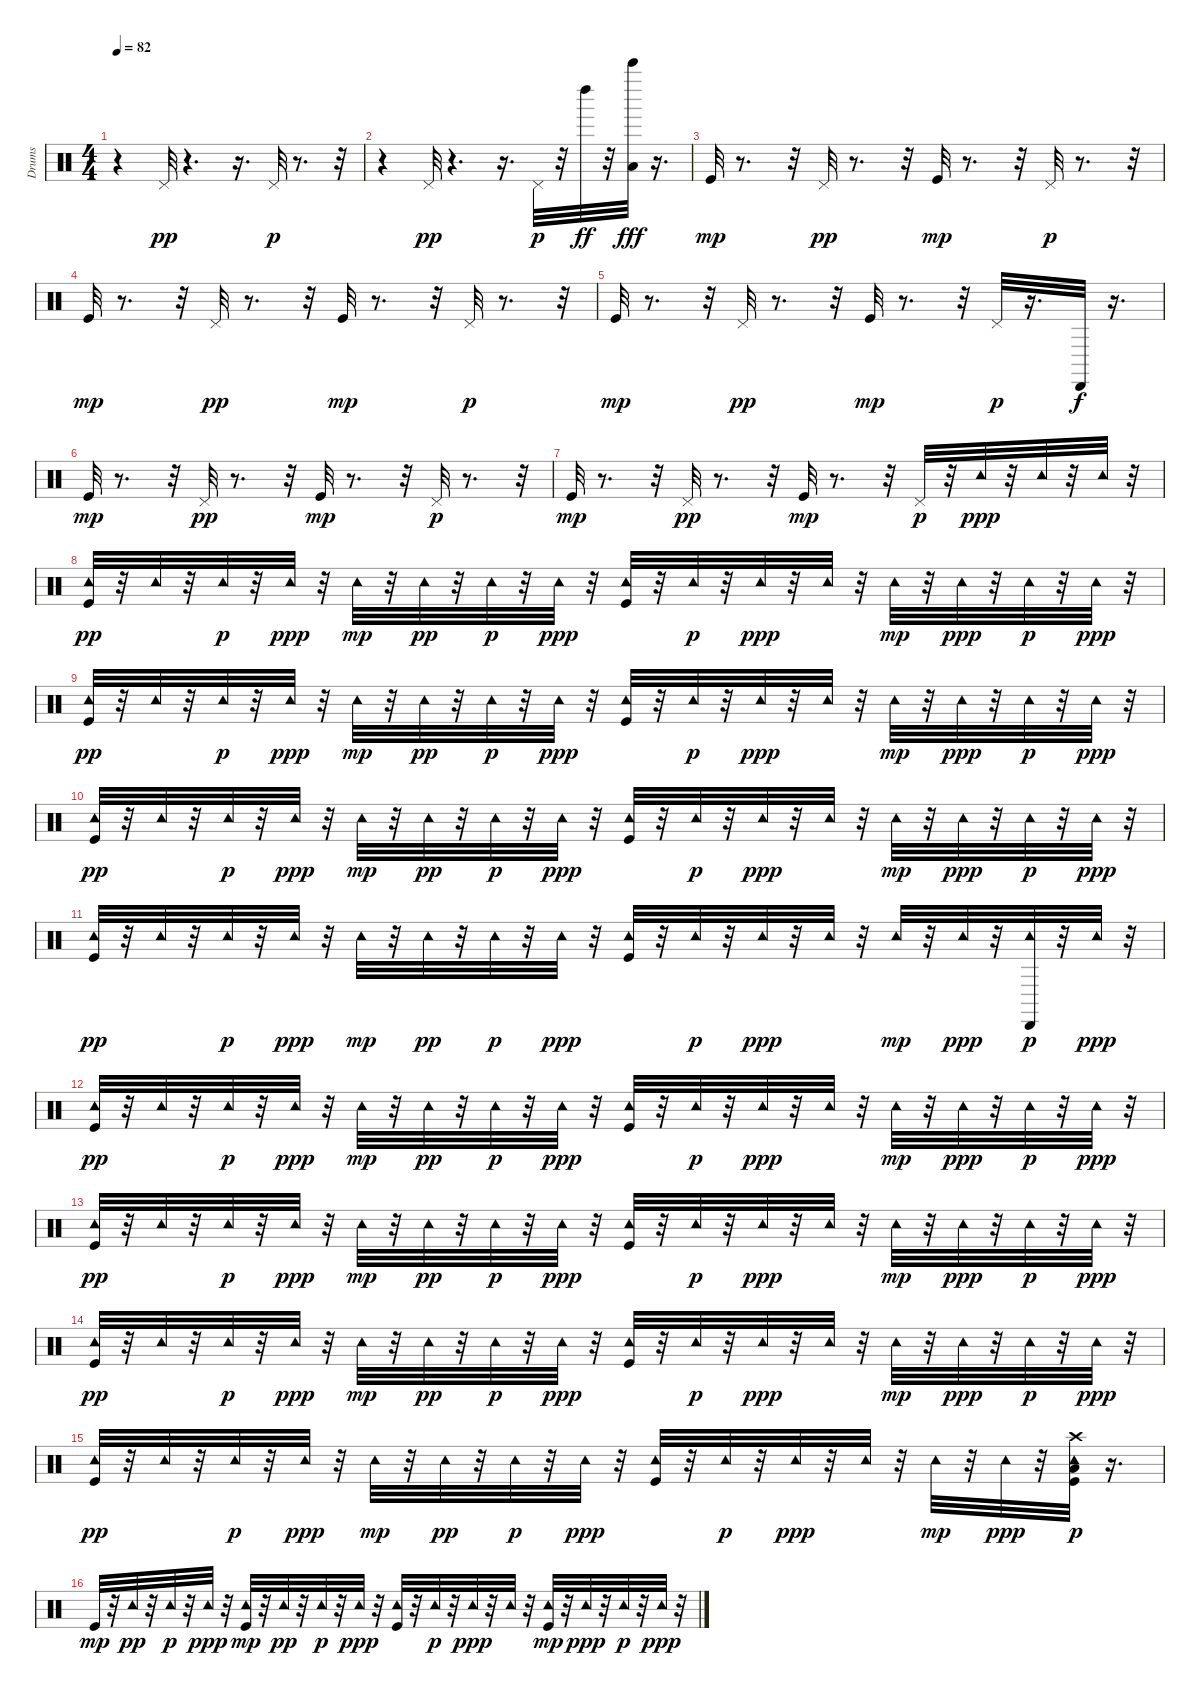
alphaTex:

\track ("Drums" "Drums") {instrument percussion}
\staff {score}
\articulation defaults
\ts (4 4)
\tempo 82
\clef neutral
\ks c
r.4{dy p} "Pedal Hi-Hat (hit)".32{dy pp} r.4{d} r.16{d} "Pedal Hi-Hat (hit)".32{dy p} r.8{d} r.32 |
r.4 "Pedal Hi-Hat (hit)".32{dy pp} r.4{d} r.16{d} "Pedal Hi-Hat (hit)".32{dy p} r.32 "Left Maraca (hit)".32{dy ff} r.32 ("Bell Tree (hit)" "Low Tom (hit)").32{dy fff} r.16{d} |
"Kick (hit)".32{dy mp} r.8{d} r.32 "Pedal Hi-Hat (hit)".32{dy pp} r.8{d} r.32 "Kick (hit)".32{dy mp} r.8{d} r.32 "Pedal Hi-Hat (hit)".32{dy p} r.8{d} r.32 |
"Kick (hit)".32{dy mp} r.8{d} r.32 "Pedal Hi-Hat (hit)".32{dy pp} r.8{d} r.32 "Kick (hit)".32{dy mp} r.8{d} r.32 "Pedal Hi-Hat (hit)".32{dy p} r.8{d} r.32 |
"Kick (hit)".32{dy mp} r.8{d} r.32 "Pedal Hi-Hat (hit)".32{dy pp} r.8{d} r.32 "Kick (hit)".32{dy mp} r.8{d} r.32 "Pedal Hi-Hat (hit)".32{dy p} r.16{d} "Cabasa (hit)".32{dy f} r.16{d} |
"Kick (hit)".32{dy mp} r.8{d} r.32 "Pedal Hi-Hat (hit)".32{dy pp} r.8{d} r.32 "Kick (hit)".32{dy mp} r.8{d} r.32 "Pedal Hi-Hat (hit)".32{dy p} r.8{d} r.32 |
"Kick (hit)".32{dy mp} r.8{d} r.32 "Pedal Hi-Hat (hit)".32{dy pp} r.8{d} r.32 "Kick (hit)".32{dy mp} r.8{d} r.32 "Pedal Hi-Hat (hit)".32{dy p} r.32 "Tambourine (hit)".32{dy ppp} r.32 "Tambourine (hit)".32 r.32 "Tambourine (hit)".32 r.32 |
("Kick (hit)" "Tambourine (hit)").32{dy pp} r.32 "Tambourine (hit)".32 r.32 "Tambourine (hit)".32{dy p} r.32 "Tambourine (hit)".32{dy ppp} r.32 "Tambourine (hit)".32{dy mp} r.32 "Tambourine (hit)".32{dy pp} r.32 "Tambourine (hit)".32{dy p} r.32 "Tambourine (hit)".32{dy ppp} r.32 ("Kick (hit)" "Tambourine (hit)").32 r.32 "Tambourine (hit)".32{dy p} r.32 "Tambourine (hit)".32{dy ppp} r.32 "Tambourine (hit)".32 r.32 "Tambourine (hit)".32{dy mp} r.32 "Tambourine (hit)".32{dy ppp} r.32 "Tambourine (hit)".32{dy p} r.32 "Tambourine (hit)".32{dy ppp} r.32 |
("Kick (hit)" "Tambourine (hit)").32{dy pp} r.32 "Tambourine (hit)".32 r.32 "Tambourine (hit)".32{dy p} r.32 "Tambourine (hit)".32{dy ppp} r.32 "Tambourine (hit)".32{dy mp} r.32 "Tambourine (hit)".32{dy pp} r.32 "Tambourine (hit)".32{dy p} r.32 "Tambourine (hit)".32{dy ppp} r.32 ("Kick (hit)" "Tambourine (hit)").32 r.32 "Tambourine (hit)".32{dy p} r.32 "Tambourine (hit)".32{dy ppp} r.32 "Tambourine (hit)".32 r.32 "Tambourine (hit)".32{dy mp} r.32 "Tambourine (hit)".32{dy ppp} r.32 "Tambourine (hit)".32{dy p} r.32 "Tambourine (hit)".32{dy ppp} r.32 |
("Kick (hit)" "Tambourine (hit)").32{dy pp} r.32 "Tambourine (hit)".32 r.32 "Tambourine (hit)".32{dy p} r.32 "Tambourine (hit)".32{dy ppp} r.32 "Tambourine (hit)".32{dy mp} r.32 "Tambourine (hit)".32{dy pp} r.32 "Tambourine (hit)".32{dy p} r.32 "Tambourine (hit)".32{dy ppp} r.32 ("Kick (hit)" "Tambourine (hit)").32 r.32 "Tambourine (hit)".32{dy p} r.32 "Tambourine (hit)".32{dy ppp} r.32 "Tambourine (hit)".32 r.32 "Tambourine (hit)".32{dy mp} r.32 "Tambourine (hit)".32{dy ppp} r.32 "Tambourine (hit)".32{dy p} r.32 "Tambourine (hit)".32{dy ppp} r.32 |
("Kick (hit)" "Tambourine (hit)").32{dy pp} r.32 "Tambourine (hit)".32 r.32 "Tambourine (hit)".32{dy p} r.32 "Tambourine (hit)".32{dy ppp} r.32 "Tambourine (hit)".32{dy mp} r.32 "Tambourine (hit)".32{dy pp} r.32 "Tambourine (hit)".32{dy p} r.32 "Tambourine (hit)".32{dy ppp} r.32 ("Kick (hit)" "Tambourine (hit)").32 r.32 "Tambourine (hit)".32{dy p} r.32 "Tambourine (hit)".32{dy ppp} r.32 "Tambourine (hit)".32 r.32 "Tambourine (hit)".32{dy mp} r.32 "Tambourine (hit)".32{dy ppp} r.32 ("Cabasa (hit)" "Tambourine (hit)").32{dy p} r.32 "Tambourine (hit)".32{dy ppp} r.32 |
("Kick (hit)" "Tambourine (hit)").32{dy pp} r.32 "Tambourine (hit)".32 r.32 "Tambourine (hit)".32{dy p} r.32 "Tambourine (hit)".32{dy ppp} r.32 "Tambourine (hit)".32{dy mp} r.32 "Tambourine (hit)".32{dy pp} r.32 "Tambourine (hit)".32{dy p} r.32 "Tambourine (hit)".32{dy ppp} r.32 ("Kick (hit)" "Tambourine (hit)").32 r.32 "Tambourine (hit)".32{dy p} r.32 "Tambourine (hit)".32{dy ppp} r.32 "Tambourine (hit)".32 r.32 "Tambourine (hit)".32{dy mp} r.32 "Tambourine (hit)".32{dy ppp} r.32 "Tambourine (hit)".32{dy p} r.32 "Tambourine (hit)".32{dy ppp} r.32 |
("Kick (hit)" "Tambourine (hit)").32{dy pp} r.32 "Tambourine (hit)".32 r.32 "Tambourine (hit)".32{dy p} r.32 "Tambourine (hit)".32{dy ppp} r.32 "Tambourine (hit)".32{dy mp} r.32 "Tambourine (hit)".32{dy pp} r.32 "Tambourine (hit)".32{dy p} r.32 "Tambourine (hit)".32{dy ppp} r.32 ("Kick (hit)" "Tambourine (hit)").32 r.32 "Tambourine (hit)".32{dy p} r.32 "Tambourine (hit)".32{dy ppp} r.32 "Tambourine (hit)".32 r.32 "Tambourine (hit)".32{dy mp} r.32 "Tambourine (hit)".32{dy ppp} r.32 "Tambourine (hit)".32{dy p} r.32 "Tambourine (hit)".32{dy ppp} r.32 |
("Kick (hit)" "Tambourine (hit)").32{dy pp} r.32 "Tambourine (hit)".32 r.32 "Tambourine (hit)".32{dy p} r.32 "Tambourine (hit)".32{dy ppp} r.32 "Tambourine (hit)".32{dy mp} r.32 "Tambourine (hit)".32{dy pp} r.32 "Tambourine (hit)".32{dy p} r.32 "Tambourine (hit)".32{dy ppp} r.32 ("Kick (hit)" "Tambourine (hit)").32 r.32 "Tambourine (hit)".32{dy p} r.32 "Tambourine (hit)".32{dy ppp} r.32 "Tambourine (hit)".32 r.32 "Tambourine (hit)".32{dy mp} r.32 "Tambourine (hit)".32{dy ppp} r.32 "Tambourine (hit)".32{dy p} r.32 "Tambourine (hit)".32{dy ppp} r.32 |
("Kick (hit)" "Tambourine (hit)").32{dy pp} r.32 "Tambourine (hit)".32 r.32 "Tambourine (hit)".32{dy p} r.32 "Tambourine (hit)".32{dy ppp} r.32 "Tambourine (hit)".32{dy mp} r.32 "Tambourine (hit)".32{dy pp} r.32 "Tambourine (hit)".32{dy p} r.32 "Tambourine (hit)".32{dy ppp} r.32 ("Kick (hit)" "Tambourine (hit)").32 r.32 "Tambourine (hit)".32{dy p} r.32 "Tambourine (hit)".32{dy ppp} r.32 "Tambourine (hit)".32 r.32 "Tambourine (hit)".32{dy mp} r.32 "Tambourine (hit)".32{dy ppp} r.32 ("Low Tom (hit)" "Kick (hit)" "Crash high (hit)" "Tambourine (hit)").32{dy p} r.16{d} |
"Kick (hit)".32{dy mp} r.32 "Tambourine (hit)".32{dy pp} r.32 "Tambourine (hit)".32{dy p} r.32 "Tambourine (hit)".32{dy ppp} r.32 ("Kick (hit)" "Tambourine (hit)").32{dy mp} r.32 "Tambourine (hit)".32{dy pp} r.32 "Tambourine (hit)".32{dy p} r.32 "Tambourine (hit)".32{dy ppp} r.32 ("Kick (hit)" "Tambourine (hit)").32 r.32 "Tambourine (hit)".32{dy p} r.32 "Tambourine (hit)".32{dy ppp} r.32 "Tambourine (hit)".32 r.32 ("Kick (hit)" "Tambourine (hit)").32{dy mp} r.32 "Tambourine (hit)".32{dy ppp} r.32 "Tambourine (hit)".32{dy p} r.32 "Tambourine (hit)".32{dy ppp} r.32
